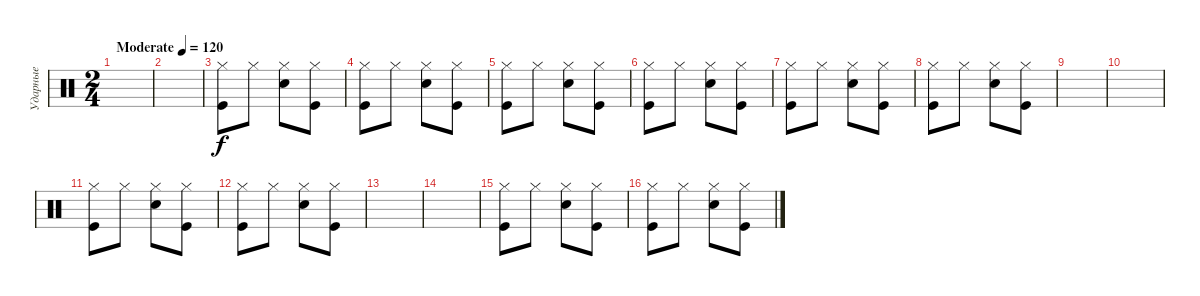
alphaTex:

\track ("Ударные" "Ударные") {instrument percussion}
\staff {score}
\articulation defaults
\ts (2 4)
\tempo (120 "Moderate")
\clef neutral
\ks c
|
|
("Kick (hit)" "Hi-Hat (closed)").8 "Hi-Hat (closed)".8 ("Snare (hit) 2" "Hi-Hat (closed)").8 ("Kick (hit)" "Hi-Hat (closed)").8 |
("Kick (hit)" "Hi-Hat (closed)").8 "Hi-Hat (closed)".8 ("Snare (hit) 2" "Hi-Hat (closed)").8 ("Kick (hit)" "Hi-Hat (closed)").8 |
("Kick (hit)" "Hi-Hat (closed)").8 "Hi-Hat (closed)".8 ("Snare (hit) 2" "Hi-Hat (closed)").8 ("Kick (hit)" "Hi-Hat (closed)").8 |
("Kick (hit)" "Hi-Hat (closed)").8 "Hi-Hat (closed)".8 ("Snare (hit) 2" "Hi-Hat (closed)").8 ("Kick (hit)" "Hi-Hat (closed)").8 |
("Kick (hit)" "Hi-Hat (closed)").8 "Hi-Hat (closed)".8 ("Snare (hit) 2" "Hi-Hat (closed)").8 ("Kick (hit)" "Hi-Hat (closed)").8 |
("Kick (hit)" "Hi-Hat (closed)").8 "Hi-Hat (closed)".8 ("Snare (hit) 2" "Hi-Hat (closed)").8 ("Kick (hit)" "Hi-Hat (closed)").8 |
|
|
("Kick (hit)" "Hi-Hat (closed)").8 "Hi-Hat (closed)".8 ("Snare (hit) 2" "Hi-Hat (closed)").8 ("Kick (hit)" "Hi-Hat (closed)").8 |
("Kick (hit)" "Hi-Hat (closed)").8 "Hi-Hat (closed)".8 ("Snare (hit) 2" "Hi-Hat (closed)").8 ("Kick (hit)" "Hi-Hat (closed)").8 |
|
|
("Kick (hit)" "Hi-Hat (closed)").8 "Hi-Hat (closed)".8 ("Snare (hit) 2" "Hi-Hat (closed)").8 ("Kick (hit)" "Hi-Hat (closed)").8 |
("Kick (hit)" "Hi-Hat (closed)").8 "Hi-Hat (closed)".8 ("Snare (hit) 2" "Hi-Hat (closed)").8 ("Kick (hit)" "Hi-Hat (closed)").8
